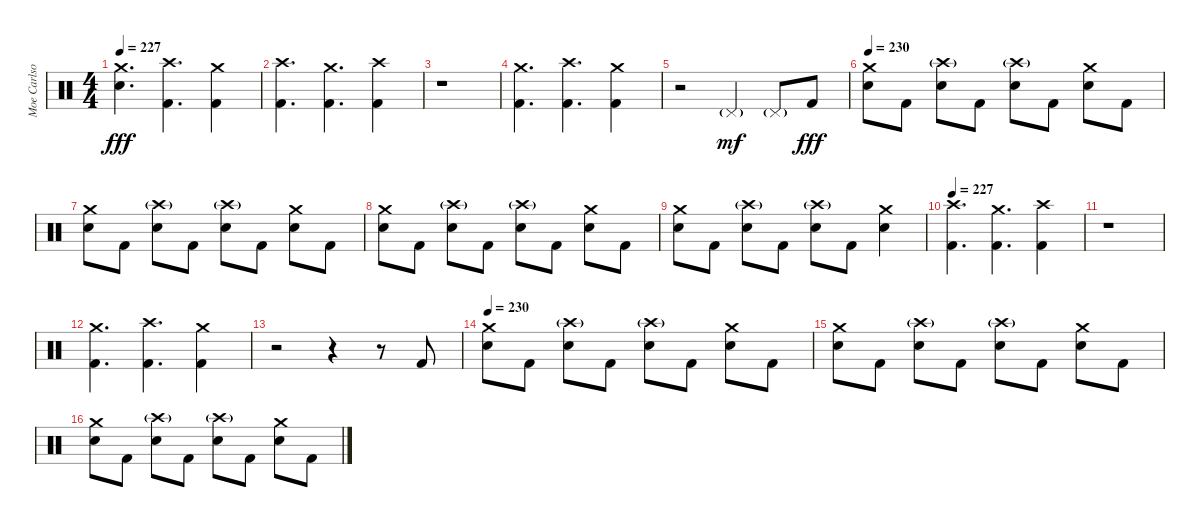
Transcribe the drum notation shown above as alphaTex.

\track ("Moe Carlson" "Moe Carlso") {instrument percussion}
\staff {score}
\articulation defaults
\ts (4 4)
\tempo 227
\clef neutral
\ks c
("Crash medium (hit)" "Electric Snare (hit)").4{d dy fff} ("Crash high (hit)" "Kick (hit) 2").4{d} ("Crash medium (hit)" "Kick (hit) 2").4 |
("Crash high (hit)" "Kick (hit) 2").4{d} ("Crash medium (hit)" "Kick (hit) 2").4{d} ("Crash high (hit)" "Kick (hit) 2").4 |
r.1 |
("Crash medium (hit)" "Kick (hit) 2").4{d} ("Crash high (hit)" "Kick (hit) 2").4{d} ("Crash medium (hit)" "Kick (hit) 2").4 |
r.2 "Pedal Hi-Hat (hit)"{g}.4{dy mf} "Pedal Hi-Hat (hit)"{g}.8 "Kick (hit) 2".8{dy fff} |
\tempo 230
("Crash medium (hit)" "Electric Snare (hit)").8 "Kick (hit) 2".8 ("Crash high (hit)"{g} "Electric Snare (hit)").8 "Kick (hit) 2".8 ("Crash high (hit)"{g} "Electric Snare (hit)").8 "Kick (hit) 2".8 ("Crash medium (hit)" "Electric Snare (hit)").8 "Kick (hit) 2".8 |
("Crash medium (hit)" "Electric Snare (hit)").8 "Kick (hit) 2".8 ("Crash high (hit)"{g} "Electric Snare (hit)").8 "Kick (hit) 2".8 ("Crash high (hit)"{g} "Electric Snare (hit)").8 "Kick (hit) 2".8 ("Crash medium (hit)" "Electric Snare (hit)").8 "Kick (hit) 2".8 |
("Crash medium (hit)" "Electric Snare (hit)").8 "Kick (hit) 2".8 ("Crash high (hit)"{g} "Electric Snare (hit)").8 "Kick (hit) 2".8 ("Crash high (hit)"{g} "Electric Snare (hit)").8 "Kick (hit) 2".8 ("Crash medium (hit)" "Electric Snare (hit)").8 "Kick (hit) 2".8 |
("Crash medium (hit)" "Electric Snare (hit)").8 "Kick (hit) 2".8 ("Crash high (hit)"{g} "Electric Snare (hit)").8 "Kick (hit) 2".8 ("Crash high (hit)"{g} "Electric Snare (hit)").8 "Kick (hit) 2".8 ("Crash medium (hit)" "Electric Snare (hit)").4 |
\tempo 227
("Crash high (hit)" "Kick (hit) 2").4{d} ("Crash medium (hit)" "Kick (hit) 2").4{d} ("Crash high (hit)" "Kick (hit) 2").4 |
r.1 |
("Crash medium (hit)" "Kick (hit) 2").4{d} ("Crash high (hit)" "Kick (hit) 2").4{d} ("Crash medium (hit)" "Kick (hit) 2").4 |
r.2 r.4 r.8 "Kick (hit) 2".8 |
\tempo 230
("Crash medium (hit)" "Electric Snare (hit)").8 "Kick (hit) 2".8 ("Crash high (hit)"{g} "Electric Snare (hit)").8 "Kick (hit) 2".8 ("Crash high (hit)"{g} "Electric Snare (hit)").8 "Kick (hit) 2".8 ("Crash medium (hit)" "Electric Snare (hit)").8 "Kick (hit) 2".8 |
("Crash medium (hit)" "Electric Snare (hit)").8 "Kick (hit) 2".8 ("Crash high (hit)"{g} "Electric Snare (hit)").8 "Kick (hit) 2".8 ("Crash high (hit)"{g} "Electric Snare (hit)").8 "Kick (hit) 2".8 ("Crash medium (hit)" "Electric Snare (hit)").8 "Kick (hit) 2".8 |
("Crash medium (hit)" "Electric Snare (hit)").8 "Kick (hit) 2".8 ("Crash high (hit)"{g} "Electric Snare (hit)").8 "Kick (hit) 2".8 ("Crash high (hit)"{g} "Electric Snare (hit)").8 "Kick (hit) 2".8 ("Crash medium (hit)" "Electric Snare (hit)").8 "Kick (hit) 2".8
